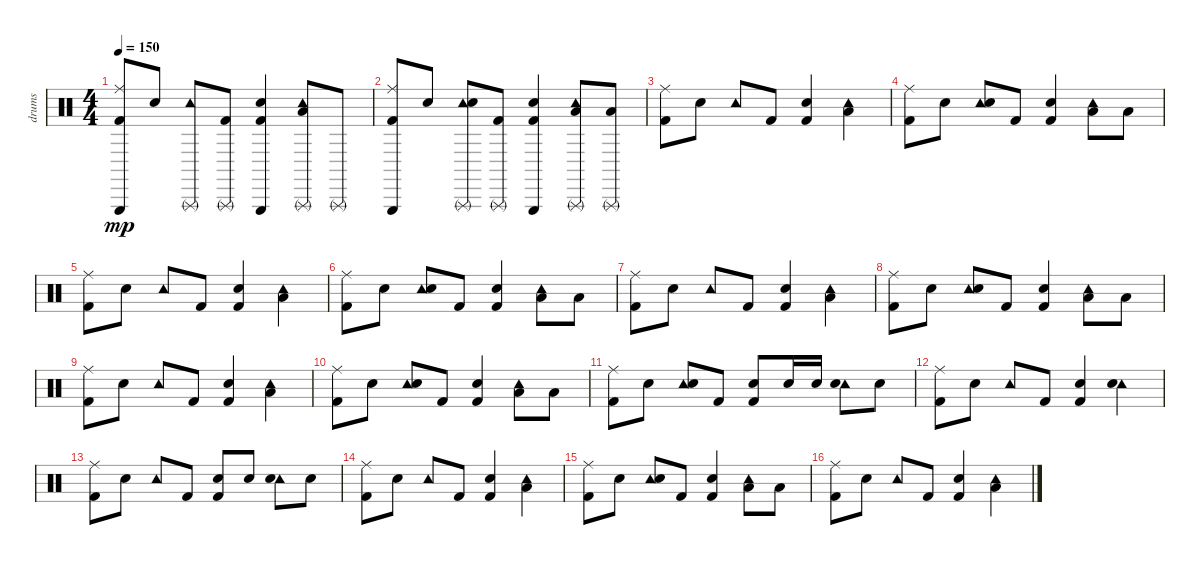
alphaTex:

\track ("drums" "drums") {instrument percussion}
\staff {score}
\articulation defaults
\ts (4 4)
\tempo 150
\clef neutral
\ks c
("Triangle (hit)" "Ride (middle)" "Kick (hit) 2").8{dy mp} "Snare (hit) 2".8 ("Triangle (rnute)" "Tambourine (hit)").8 ("Triangle (rnute)" "Kick (hit) 2").8 ("Triangle (hit)" "Kick (hit) 2" "Snare (hit) 2").4 ("Tambourine (hit)" "Low Tom (hit)" "Triangle (rnute)").8 "Triangle (rnute)".8 |
("Triangle (hit)" "Ride (middle)" "Kick (hit) 2").8 "Snare (hit) 2".8 ("Triangle (rnute)" "Tambourine (hit)" "Snare (hit) 2").8 ("Triangle (rnute)" "Kick (hit) 2").8 ("Triangle (hit)" "Kick (hit) 2" "Snare (hit) 2").4 ("Tambourine (hit)" "Triangle (rnute)" "Low Tom (hit)").8 ("Low Tom (hit)" "Triangle (rnute)").8 |
("Ride (middle)" "Kick (hit) 2").8 "Snare (hit) 2".8 "Tambourine (hit)".8 "Kick (hit) 2".8 ("Kick (hit) 2" "Snare (hit) 2").4 ("Tambourine (hit)" "Low Tom (hit)").4 |
("Ride (middle)" "Kick (hit) 2").8 "Snare (hit) 2".8 ("Tambourine (hit)" "Snare (hit) 2").8 "Kick (hit) 2".8 ("Kick (hit) 2" "Snare (hit) 2").4 ("Tambourine (hit)" "Low Tom (hit)").8 "Low Tom (hit)".8 |
("Ride (middle)" "Kick (hit) 2").8 "Snare (hit) 2".8 "Tambourine (hit)".8 "Kick (hit) 2".8 ("Kick (hit) 2" "Snare (hit) 2").4 ("Tambourine (hit)" "Low Tom (hit)").4 |
("Ride (middle)" "Kick (hit) 2").8 "Snare (hit) 2".8 ("Tambourine (hit)" "Snare (hit) 2").8 "Kick (hit) 2".8 ("Kick (hit) 2" "Snare (hit) 2").4 ("Tambourine (hit)" "Low Tom (hit)").8 "Low Tom (hit)".8 |
("Ride (middle)" "Kick (hit) 2").8 "Snare (hit) 2".8 "Tambourine (hit)".8 "Kick (hit) 2".8 ("Kick (hit) 2" "Snare (hit) 2").4 ("Tambourine (hit)" "Low Tom (hit)").4 |
("Ride (middle)" "Kick (hit) 2").8 "Snare (hit) 2".8 ("Tambourine (hit)" "Snare (hit) 2").8 "Kick (hit) 2".8 ("Kick (hit) 2" "Snare (hit) 2").4 ("Tambourine (hit)" "Low Tom (hit)").8 "Low Tom (hit)".8 |
("Ride (middle)" "Kick (hit) 2").8 "Snare (hit) 2".8 "Tambourine (hit)".8 "Kick (hit) 2".8 ("Kick (hit) 2" "Snare (hit) 2").4 ("Tambourine (hit)" "Low Tom (hit)").4 |
("Ride (middle)" "Kick (hit) 2").8 "Snare (hit) 2".8 ("Tambourine (hit)" "Snare (hit) 2").8 "Kick (hit) 2".8 ("Kick (hit) 2" "Snare (hit) 2").4 ("Tambourine (hit)" "Low Tom (hit)").8 "Low Tom (hit)".8 |
("Ride (middle)" "Kick (hit) 2").8 "Snare (hit) 2".8 ("Tambourine (hit)" "Snare (hit) 2").8 "Kick (hit) 2".8 ("Kick (hit) 2" "Snare (hit) 2").8 "Snare (hit) 2".16 "Snare (hit) 2".16 ("Tambourine (hit)" "Snare (hit) 2").8 "Snare (hit) 2".8 |
("Ride (middle)" "Kick (hit) 2").8 "Snare (hit) 2".8 "Tambourine (hit)".8 "Kick (hit) 2".8 ("Kick (hit) 2" "Snare (hit) 2").4 ("Tambourine (hit)" "Snare (hit) 2").4 |
("Ride (middle)" "Kick (hit) 2").8 "Snare (hit) 2".8 "Tambourine (hit)".8 "Kick (hit) 2".8 ("Kick (hit) 2" "Snare (hit) 2").8 "Snare (hit) 2".8 ("Tambourine (hit)" "Snare (hit) 2").8 "Snare (hit) 2".8 |
("Ride (middle)" "Kick (hit) 2").8 "Snare (hit) 2".8 "Tambourine (hit)".8 "Kick (hit) 2".8 ("Kick (hit) 2" "Snare (hit) 2").4 ("Tambourine (hit)" "Low Tom (hit)").4 |
("Ride (middle)" "Kick (hit) 2").8 "Snare (hit) 2".8 ("Tambourine (hit)" "Snare (hit) 2").8 "Kick (hit) 2".8 ("Kick (hit) 2" "Snare (hit) 2").4 ("Tambourine (hit)" "Low Tom (hit)").8 "Low Tom (hit)".8 |
("Ride (middle)" "Kick (hit) 2").8 "Snare (hit) 2".8 "Tambourine (hit)".8 "Kick (hit) 2".8 ("Kick (hit) 2" "Snare (hit) 2").4 ("Tambourine (hit)" "Low Tom (hit)").4
